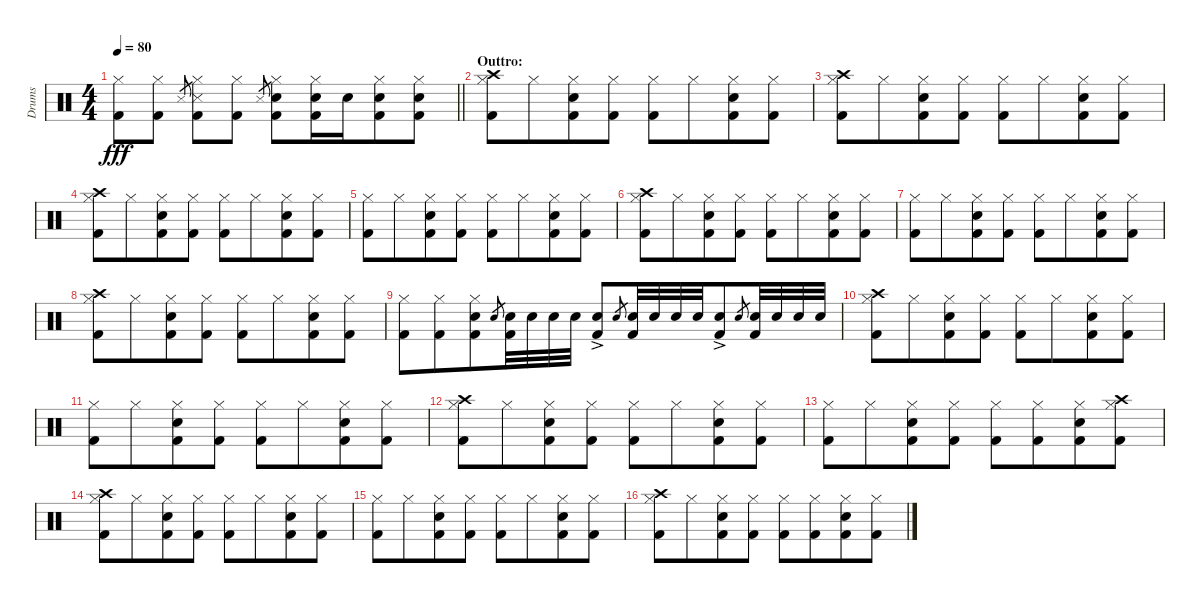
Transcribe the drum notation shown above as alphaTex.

\track ("Drums" "Drums") {instrument percussion}
\staff {score}
\articulation defaults
\ts (4 4)
\tempo 80
\clef neutral
\barLineRight lightlight
\ks c
("Hi-Hat (closed)" "Kick (hit) 2").8{dy fff} ("Hi-Hat (closed)" "Kick (hit) 2").8 "Snare (side stick) 3".8{gr beam merge} ("Hi-Hat (closed)" "Snare (side stick) 3" "Kick (hit) 2").8 ("Hi-Hat (closed)" "Kick (hit) 2").8 "Snare (side stick) 3".8{gr beam merge} ("Hi-Hat (closed)" "Snare (hit) 2" "Kick (hit) 2").8 ("Hi-Hat (closed)" "Snare (hit) 2" "Kick (hit) 2").16 "Snare (hit) 2".16{beam merge} ("Hi-Hat (closed)" "Snare (hit) 2" "Kick (hit) 2").8 ("Hi-Hat (closed)" "Snare (hit) 2" "Kick (hit) 2").8 |
\section ("" "Outtro:")
("Hi-Hat (closed)" "Crash high (hit)" "Kick (hit) 2").8 "Hi-Hat (closed)".8{beam merge} ("Hi-Hat (closed)" "Snare (hit) 2" "Kick (hit) 2").8 ("Hi-Hat (closed)" "Kick (hit) 2").8 ("Hi-Hat (closed)" "Kick (hit) 2").8 "Hi-Hat (closed)".8{beam merge} ("Hi-Hat (closed)" "Snare (hit) 2" "Kick (hit) 2").8 ("Hi-Hat (closed)" "Kick (hit) 2").8 |
("Hi-Hat (closed)" "Crash high (hit)" "Kick (hit) 2").8 "Hi-Hat (closed)".8{beam merge} ("Hi-Hat (closed)" "Snare (hit) 2" "Kick (hit) 2").8 ("Hi-Hat (closed)" "Kick (hit) 2").8 ("Hi-Hat (closed)" "Kick (hit) 2").8 "Hi-Hat (closed)".8{beam merge} ("Hi-Hat (closed)" "Snare (hit) 2" "Kick (hit) 2").8 ("Hi-Hat (closed)" "Kick (hit) 2").8 |
("Hi-Hat (closed)" "Crash high (hit)" "Kick (hit) 2").8 "Hi-Hat (closed)".8{beam merge} ("Hi-Hat (closed)" "Snare (hit) 2" "Kick (hit) 2").8 ("Hi-Hat (closed)" "Kick (hit) 2").8 ("Hi-Hat (closed)" "Kick (hit) 2").8 "Hi-Hat (closed)".8{beam merge} ("Hi-Hat (closed)" "Snare (hit) 2" "Kick (hit) 2").8 ("Hi-Hat (closed)" "Kick (hit) 2").8 |
("Hi-Hat (closed)" "Kick (hit) 2").8 "Hi-Hat (closed)".8{beam merge} ("Hi-Hat (closed)" "Snare (hit) 2" "Kick (hit) 2").8 ("Hi-Hat (closed)" "Kick (hit) 2").8 ("Hi-Hat (closed)" "Kick (hit) 2").8 "Hi-Hat (closed)".8{beam merge} ("Hi-Hat (closed)" "Snare (hit) 2" "Kick (hit) 2").8 ("Hi-Hat (closed)" "Kick (hit) 2").8 |
("Hi-Hat (closed)" "Crash high (hit)" "Kick (hit) 2").8 "Hi-Hat (closed)".8{beam merge} ("Hi-Hat (closed)" "Snare (hit) 2" "Kick (hit) 2").8 ("Hi-Hat (closed)" "Kick (hit) 2").8 ("Hi-Hat (closed)" "Kick (hit) 2").8 "Hi-Hat (closed)".8{beam merge} ("Hi-Hat (closed)" "Snare (hit) 2" "Kick (hit) 2").8 ("Hi-Hat (closed)" "Kick (hit) 2").8 |
("Hi-Hat (closed)" "Kick (hit) 2").8 "Hi-Hat (closed)".8{beam merge} ("Hi-Hat (closed)" "Snare (hit) 2" "Kick (hit) 2").8 ("Hi-Hat (closed)" "Kick (hit) 2").8 ("Hi-Hat (closed)" "Kick (hit) 2").8 "Hi-Hat (closed)".8{beam merge} ("Hi-Hat (closed)" "Snare (hit) 2" "Kick (hit) 2").8 ("Hi-Hat (closed)" "Kick (hit) 2").8 |
("Hi-Hat (closed)" "Crash high (hit)" "Kick (hit) 2").8 "Hi-Hat (closed)".8{beam merge} ("Hi-Hat (closed)" "Snare (hit) 2" "Kick (hit) 2").8 ("Hi-Hat (closed)" "Kick (hit) 2").8 ("Hi-Hat (closed)" "Kick (hit) 2").8 "Hi-Hat (closed)".8{beam merge} ("Hi-Hat (closed)" "Snare (hit) 2" "Kick (hit) 2").8 ("Hi-Hat (closed)" "Kick (hit) 2").8 |
("Hi-Hat (closed)" "Kick (hit) 2").8 ("Hi-Hat (closed)" "Kick (hit) 2").8{beam merge} ("Hi-Hat (closed)" "Snare (hit) 2" "Kick (hit) 2").8 "Snare (hit) 2".8{gr} ("Snare (hit) 2" "Kick (hit) 2").32 "Snare (hit) 2".32 "Snare (hit) 2".32 "Snare (hit) 2".32 ("Snare (hit) 2"{ac} "Kick (hit) 2").8 "Snare (hit) 2".8{gr} ("Snare (hit) 2" "Kick (hit) 2").32 "Snare (hit) 2".32 "Snare (hit) 2".32 "Snare (hit) 2".32{beam merge} ("Snare (hit) 2"{ac} "Kick (hit) 2").8 "Snare (hit) 2".8{gr} ("Snare (hit) 2" "Kick (hit) 2").32 "Snare (hit) 2".32 "Snare (hit) 2".32 "Snare (hit) 2".32 |
("Hi-Hat (closed)" "Crash high (hit)" "Kick (hit) 2").8 "Hi-Hat (closed)".8{beam merge} ("Hi-Hat (closed)" "Snare (hit) 2" "Kick (hit) 2").8 ("Hi-Hat (closed)" "Kick (hit) 2").8 ("Hi-Hat (closed)" "Kick (hit) 2").8 "Hi-Hat (closed)".8{beam merge} ("Hi-Hat (closed)" "Snare (hit) 2" "Kick (hit) 2").8 ("Hi-Hat (closed)" "Kick (hit) 2").8 |
("Hi-Hat (closed)" "Kick (hit) 2").8 "Hi-Hat (closed)".8{beam merge} ("Hi-Hat (closed)" "Snare (hit) 2" "Kick (hit) 2").8 ("Hi-Hat (closed)" "Kick (hit) 2").8 ("Hi-Hat (closed)" "Kick (hit) 2").8 "Hi-Hat (closed)".8{beam merge} ("Hi-Hat (closed)" "Snare (hit) 2" "Kick (hit) 2").8 ("Hi-Hat (closed)" "Kick (hit) 2").8 |
("Hi-Hat (closed)" "Crash high (hit)" "Kick (hit) 2").8 "Hi-Hat (closed)".8{beam merge} ("Hi-Hat (closed)" "Snare (hit) 2" "Kick (hit) 2").8 ("Hi-Hat (closed)" "Kick (hit) 2").8 ("Hi-Hat (closed)" "Kick (hit) 2").8 "Hi-Hat (closed)".8{beam merge} ("Hi-Hat (closed)" "Snare (hit) 2" "Kick (hit) 2").8 ("Hi-Hat (closed)" "Kick (hit) 2").8 |
("Hi-Hat (closed)" "Kick (hit) 2").8 "Hi-Hat (closed)".8{beam merge} ("Hi-Hat (closed)" "Snare (hit) 2" "Kick (hit) 2").8 ("Hi-Hat (closed)" "Kick (hit) 2").8 ("Hi-Hat (closed)" "Kick (hit) 2").8 ("Hi-Hat (closed)" "Kick (hit) 2").8{beam merge} ("Hi-Hat (closed)" "Snare (hit) 2" "Kick (hit) 2").8 ("Hi-Hat (closed)" "Crash high (hit)" "Kick (hit) 2").8 |
("Hi-Hat (closed)" "Crash high (hit)" "Kick (hit) 2").8 "Hi-Hat (closed)".8{beam merge} ("Hi-Hat (closed)" "Snare (hit) 2" "Kick (hit) 2").8 ("Hi-Hat (closed)" "Kick (hit) 2").8 ("Hi-Hat (closed)" "Kick (hit) 2").8 "Hi-Hat (closed)".8{beam merge} ("Hi-Hat (closed)" "Snare (hit) 2" "Kick (hit) 2").8 ("Hi-Hat (closed)" "Kick (hit) 2").8 |
("Hi-Hat (closed)" "Kick (hit) 2").8 "Hi-Hat (closed)".8{beam merge} ("Hi-Hat (closed)" "Snare (hit) 2" "Kick (hit) 2").8 ("Hi-Hat (closed)" "Kick (hit) 2").8 ("Hi-Hat (closed)" "Kick (hit) 2").8 "Hi-Hat (closed)".8{beam merge} ("Hi-Hat (closed)" "Snare (hit) 2" "Kick (hit) 2").8 ("Hi-Hat (closed)" "Kick (hit) 2").8 |
("Hi-Hat (closed)" "Crash high (hit)" "Kick (hit) 2").8 "Hi-Hat (closed)".8{beam merge} ("Hi-Hat (closed)" "Snare (hit) 2" "Kick (hit) 2").8 ("Hi-Hat (closed)" "Kick (hit) 2").8 ("Hi-Hat (closed)" "Kick (hit) 2").8 ("Hi-Hat (closed)" "Kick (hit) 2").8{beam merge} ("Hi-Hat (closed)" "Snare (hit) 2" "Kick (hit) 2").8 ("Hi-Hat (closed)" "Kick (hit) 2").8
